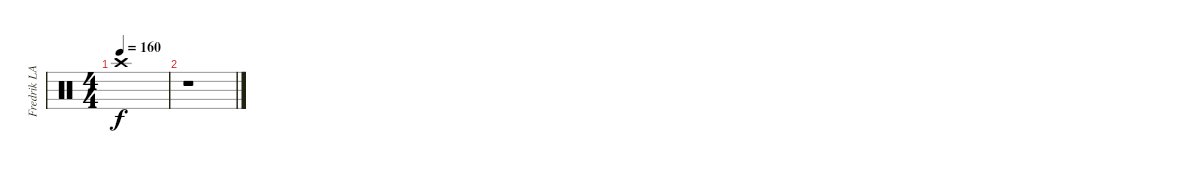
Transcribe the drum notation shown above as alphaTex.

\track ("Fredrik LARZON" "Fredrik LA") {instrument percussion}
\staff {score}
\articulation defaults
\ts (4 4)
\tempo 160
\clef neutral
\ks c "Crash high (hit)"{t}.1{dy f}
|
r.1
